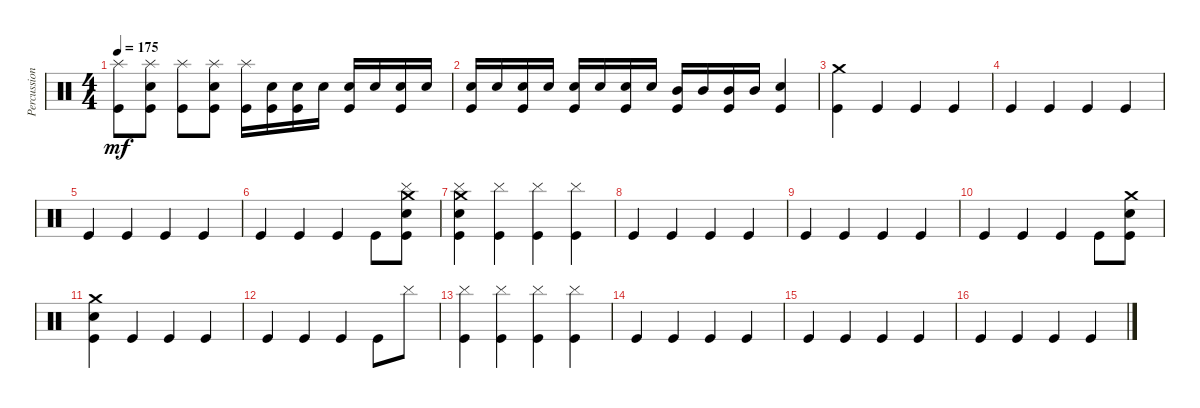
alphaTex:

\track ("Percussioni" "Percussion") {instrument percussion}
\staff {score}
\articulation defaults
\ts (4 4)
\tempo 175
\clef neutral
\ks c
("Splash (hit)" "Kick (hit)").8{dy mf} ("Electric Snare (hit)" "Splash (hit)" "Kick (hit)").8 ("Splash (hit)" "Kick (hit)").8 ("Electric Snare (hit)" "Splash (hit)" "Kick (hit)").8 ("Splash (hit)" "Kick (hit)").16 ("Electric Snare (hit)" "Kick (hit)").16 ("Electric Snare (hit)" "Kick (hit)").16 "Electric Snare (hit)".16 ("Electric Snare (hit)" "Kick (hit)").16 "Electric Snare (hit)".16 ("Electric Snare (hit)" "Kick (hit)").16 "Electric Snare (hit)".16 |
("Electric Snare (hit)" "Kick (hit)").16 "Electric Snare (hit)".16 ("Electric Snare (hit)" "Kick (hit)").16 "Electric Snare (hit)".16 ("Electric Snare (hit)" "Kick (hit)").16 "Electric Snare (hit)".16 ("Electric Snare (hit)" "Kick (hit)").16 "Electric Snare (hit)".16 ("Mid Tom (hit)" "Kick (hit)").16 "Mid Tom (hit)".16 ("Mid Tom (hit)" "Kick (hit)").16 "Mid Tom (hit)".16 ("Electric Snare (hit)" "Kick (hit)").4 |
("Kick (hit)" "Crash medium (hit)").4 "Kick (hit)".4 "Kick (hit)".4 "Kick (hit)".4 |
"Kick (hit)".4 "Kick (hit)".4 "Kick (hit)".4 "Kick (hit)".4 |
"Kick (hit)".4 "Kick (hit)".4 "Kick (hit)".4 "Kick (hit)".4 |
"Kick (hit)".4 "Kick (hit)".4 "Kick (hit)".4 "Kick (hit)".8 ("Kick (hit)" "Electric Snare (hit)" "Crash medium (hit)" "Cymbal (hit)").8 |
("Kick (hit)" "Electric Snare (hit)" "Crash medium (hit)" "Cymbal (hit)").4 ("Kick (hit)" "Cymbal (hit)").4 ("Kick (hit)" "Cymbal (hit)").4 ("Kick (hit)" "Cymbal (hit)").4 |
"Kick (hit)".4 "Kick (hit)".4 "Kick (hit)".4 "Kick (hit)".4 |
"Kick (hit)".4 "Kick (hit)".4 "Kick (hit)".4 "Kick (hit)".4 |
"Kick (hit)".4 "Kick (hit)".4 "Kick (hit)".4 "Kick (hit)".8 ("Kick (hit)" "Electric Snare (hit)" "Crash medium (hit)").8 |
("Kick (hit)" "Electric Snare (hit)" "Crash medium (hit)").4 "Kick (hit)".4 "Kick (hit)".4 "Kick (hit)".4 |
"Kick (hit)".4 "Kick (hit)".4 "Kick (hit)".4 "Kick (hit)".8 "Cymbal (hit)".8 |
("Kick (hit)" "Cymbal (hit)").4 ("Kick (hit)" "Cymbal (hit)").4 ("Kick (hit)" "Cymbal (hit)").4 ("Kick (hit)" "Cymbal (hit)").4 |
"Kick (hit)".4 "Kick (hit)".4 "Kick (hit)".4 "Kick (hit)".4 |
"Kick (hit)".4 "Kick (hit)".4 "Kick (hit)".4 "Kick (hit)".4 |
"Kick (hit)".4 "Kick (hit)".4 "Kick (hit)".4 "Kick (hit)".4
